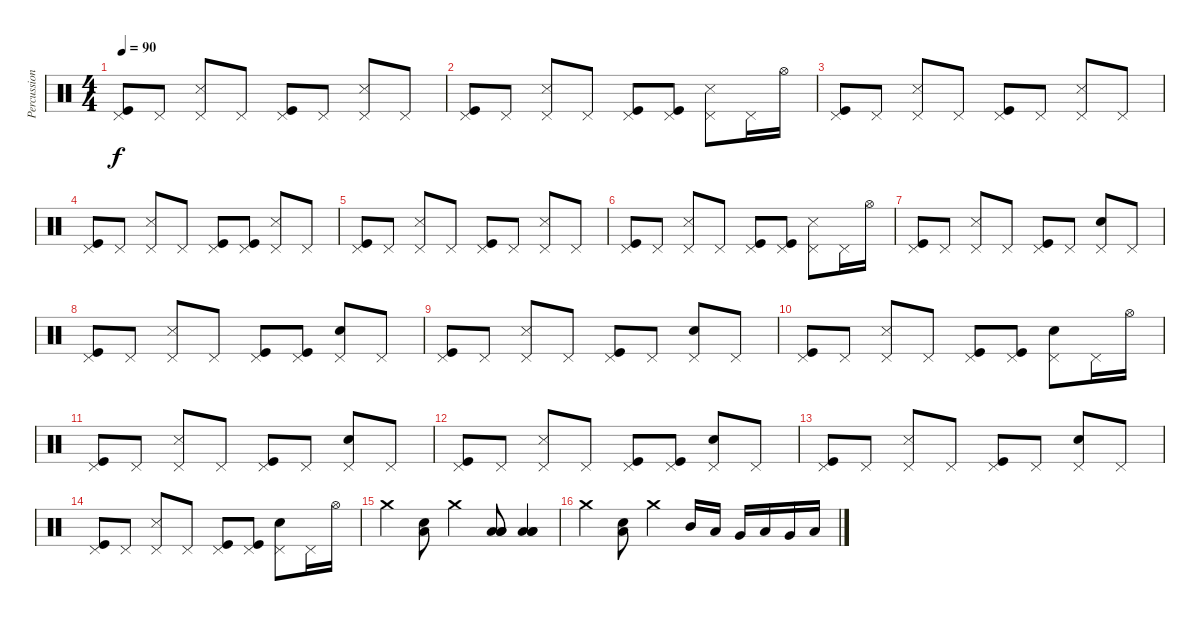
\track ("Percussion" "Percussion") {instrument percussion}
\staff {score}
\articulation defaults
\ts (4 4)
\tempo 90
\clef neutral
\ks c
("Pedal Hi-Hat (hit)" "Kick (hit)").8{dy f} "Pedal Hi-Hat (hit)".8 ("Pedal Hi-Hat (hit)" "Snare (side stick) 3").8 "Pedal Hi-Hat (hit)".8 ("Pedal Hi-Hat (hit)" "Kick (hit)").8 "Pedal Hi-Hat (hit)".8 ("Pedal Hi-Hat (hit)" "Snare (side stick) 3").8 "Pedal Hi-Hat (hit)".8 |
("Pedal Hi-Hat (hit)" "Kick (hit)").8 "Pedal Hi-Hat (hit)".8 ("Pedal Hi-Hat (hit)" "Snare (side stick) 3").8 "Pedal Hi-Hat (hit)".8 ("Pedal Hi-Hat (hit)" "Kick (hit)").8 ("Pedal Hi-Hat (hit)" "Kick (hit)").8 ("Pedal Hi-Hat (hit)" "Snare (side stick) 3").8 "Pedal Hi-Hat (hit)".16 "Hi-Hat (open)".16 |
("Pedal Hi-Hat (hit)" "Kick (hit)").8 "Pedal Hi-Hat (hit)".8 ("Pedal Hi-Hat (hit)" "Snare (side stick) 3").8 "Pedal Hi-Hat (hit)".8 ("Pedal Hi-Hat (hit)" "Kick (hit)").8 "Pedal Hi-Hat (hit)".8 ("Pedal Hi-Hat (hit)" "Snare (side stick) 3").8 "Pedal Hi-Hat (hit)".8 |
("Pedal Hi-Hat (hit)" "Kick (hit)").8 "Pedal Hi-Hat (hit)".8 ("Pedal Hi-Hat (hit)" "Snare (side stick) 3").8 "Pedal Hi-Hat (hit)".8 ("Pedal Hi-Hat (hit)" "Kick (hit)").8 ("Pedal Hi-Hat (hit)" "Kick (hit)").8 ("Pedal Hi-Hat (hit)" "Snare (side stick) 3").8 "Pedal Hi-Hat (hit)".8 |
("Pedal Hi-Hat (hit)" "Kick (hit)").8 "Pedal Hi-Hat (hit)".8 ("Pedal Hi-Hat (hit)" "Snare (side stick) 3").8 "Pedal Hi-Hat (hit)".8 ("Pedal Hi-Hat (hit)" "Kick (hit)").8 "Pedal Hi-Hat (hit)".8 ("Pedal Hi-Hat (hit)" "Snare (side stick) 3").8 "Pedal Hi-Hat (hit)".8 |
("Pedal Hi-Hat (hit)" "Kick (hit)").8 "Pedal Hi-Hat (hit)".8 ("Pedal Hi-Hat (hit)" "Snare (side stick) 3").8 "Pedal Hi-Hat (hit)".8 ("Pedal Hi-Hat (hit)" "Kick (hit)").8 ("Pedal Hi-Hat (hit)" "Kick (hit)").8 ("Pedal Hi-Hat (hit)" "Snare (side stick) 3").8 "Pedal Hi-Hat (hit)".16 "Hi-Hat (open)".16 |
("Pedal Hi-Hat (hit)" "Kick (hit)").8 "Pedal Hi-Hat (hit)".8 ("Pedal Hi-Hat (hit)" "Snare (side stick) 3").8 "Pedal Hi-Hat (hit)".8 ("Pedal Hi-Hat (hit)" "Kick (hit)").8 "Pedal Hi-Hat (hit)".8 ("Pedal Hi-Hat (hit)" "Electric Snare (hit)").8 "Pedal Hi-Hat (hit)".8 |
("Pedal Hi-Hat (hit)" "Kick (hit)").8 "Pedal Hi-Hat (hit)".8 ("Pedal Hi-Hat (hit)" "Snare (side stick) 3").8 "Pedal Hi-Hat (hit)".8 ("Pedal Hi-Hat (hit)" "Kick (hit)").8 ("Pedal Hi-Hat (hit)" "Kick (hit)").8 ("Pedal Hi-Hat (hit)" "Electric Snare (hit)").8 "Pedal Hi-Hat (hit)".8 |
("Pedal Hi-Hat (hit)" "Kick (hit)").8 "Pedal Hi-Hat (hit)".8 ("Pedal Hi-Hat (hit)" "Snare (side stick) 3").8 "Pedal Hi-Hat (hit)".8 ("Pedal Hi-Hat (hit)" "Kick (hit)").8 "Pedal Hi-Hat (hit)".8 ("Pedal Hi-Hat (hit)" "Electric Snare (hit)").8 "Pedal Hi-Hat (hit)".8 |
("Pedal Hi-Hat (hit)" "Kick (hit)").8 "Pedal Hi-Hat (hit)".8 ("Pedal Hi-Hat (hit)" "Snare (side stick) 3").8 "Pedal Hi-Hat (hit)".8 ("Pedal Hi-Hat (hit)" "Kick (hit)").8 ("Pedal Hi-Hat (hit)" "Kick (hit)").8 ("Pedal Hi-Hat (hit)" "Electric Snare (hit)").8 "Pedal Hi-Hat (hit)".16 "Hi-Hat (open)".16 |
("Pedal Hi-Hat (hit)" "Kick (hit)").8 "Pedal Hi-Hat (hit)".8 ("Pedal Hi-Hat (hit)" "Snare (side stick) 3").8 "Pedal Hi-Hat (hit)".8 ("Pedal Hi-Hat (hit)" "Kick (hit)").8 "Pedal Hi-Hat (hit)".8 ("Pedal Hi-Hat (hit)" "Electric Snare (hit)").8 "Pedal Hi-Hat (hit)".8 |
("Pedal Hi-Hat (hit)" "Kick (hit)").8 "Pedal Hi-Hat (hit)".8 ("Pedal Hi-Hat (hit)" "Snare (side stick) 3").8 "Pedal Hi-Hat (hit)".8 ("Pedal Hi-Hat (hit)" "Kick (hit)").8 ("Pedal Hi-Hat (hit)" "Kick (hit)").8 ("Pedal Hi-Hat (hit)" "Electric Snare (hit)").8 "Pedal Hi-Hat (hit)".8 |
("Pedal Hi-Hat (hit)" "Kick (hit)").8 "Pedal Hi-Hat (hit)".8 ("Pedal Hi-Hat (hit)" "Snare (side stick) 3").8 "Pedal Hi-Hat (hit)".8 ("Pedal Hi-Hat (hit)" "Kick (hit)").8 "Pedal Hi-Hat (hit)".8 ("Pedal Hi-Hat (hit)" "Electric Snare (hit)").8 "Pedal Hi-Hat (hit)".8 |
("Pedal Hi-Hat (hit)" "Kick (hit)").8 "Pedal Hi-Hat (hit)".8 ("Pedal Hi-Hat (hit)" "Snare (side stick) 3").8 "Pedal Hi-Hat (hit)".8 ("Pedal Hi-Hat (hit)" "Kick (hit)").8 ("Pedal Hi-Hat (hit)" "Kick (hit)").8 ("Pedal Hi-Hat (hit)" "Electric Snare (hit)").8 "Pedal Hi-Hat (hit)".16 "Hi-Hat (open)".16 |
"Crash medium (hit)".4 ("Low Tom (hit)" "Electric Snare (hit)").8 "Crash medium (hit)".4 ("Low Tom (hit)" "Low Tom (hit)" "Low Tom (hit)").8 ("Low Tom (hit)" "Low Tom (hit)" "Low Tom (hit)").4 |
"Crash medium (hit)".4 ("Low Tom (hit)" "Electric Snare (hit)").8 "Crash medium (hit)".4 "Mid Tom (hit)".16 "Low Tom (hit)".16 "Very Low Tom (hit)".16 "Low Floor Tom (hit)".16 "Very Low Tom (hit)".16 "Low Floor Tom (hit)".16
